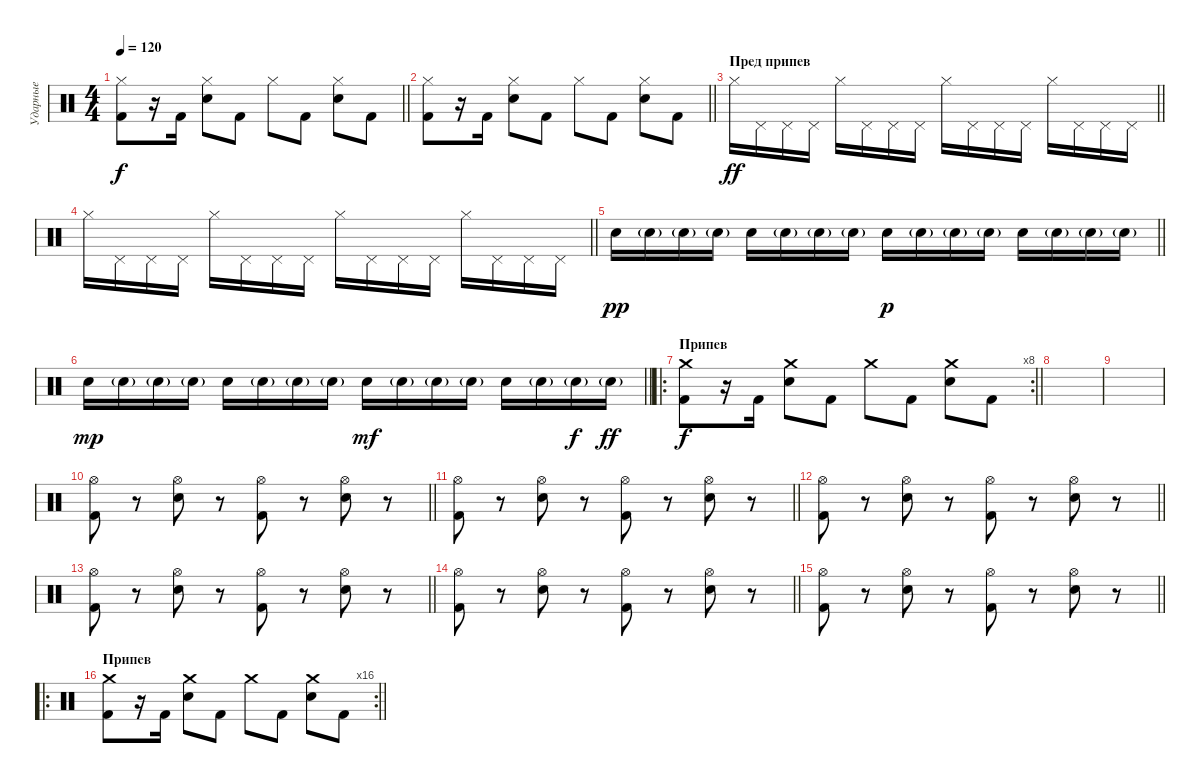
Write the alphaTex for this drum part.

\track ("Ударные" "Ударные") {instrument percussion}
\staff {score}
\articulation defaults
\ts (4 4)
\tempo 120
\clef neutral
\barLineRight lightlight
\ks c
("Kick (hit) 2" "Hi-Hat (closed)").8{dy f} r.16 "Kick (hit) 2".16 ("Electric Snare (hit)" "Hi-Hat (closed)").8 "Kick (hit) 2".8 "Hi-Hat (closed)".8 "Kick (hit) 2".8 ("Electric Snare (hit)" "Hi-Hat (closed)").8 "Kick (hit) 2".8 |
\barLineRight lightlight
("Kick (hit) 2" "Hi-Hat (closed)").8 r.16 "Kick (hit) 2".16 ("Electric Snare (hit)" "Hi-Hat (closed)").8 "Kick (hit) 2".8 "Hi-Hat (closed)".8 "Kick (hit) 2".8 ("Electric Snare (hit)" "Hi-Hat (closed)").8 "Kick (hit) 2".8 |
\section ("" "Пред припев")
\barLineRight lightlight "Hi-Hat (closed)".16{dy ff} "Pedal Hi-Hat (hit)".16 "Pedal Hi-Hat (hit)".16 "Pedal Hi-Hat (hit)".16 "Hi-Hat (closed)".16 "Pedal Hi-Hat (hit)".16 "Pedal Hi-Hat (hit)".16 "Pedal Hi-Hat (hit)".16 "Hi-Hat (closed)".16 "Pedal Hi-Hat (hit)".16 "Pedal Hi-Hat (hit)".16 "Pedal Hi-Hat (hit)".16 "Hi-Hat (closed)".16 "Pedal Hi-Hat (hit)".16 "Pedal Hi-Hat (hit)".16 "Pedal Hi-Hat (hit)".16
|
\barLineRight lightlight "Hi-Hat (closed)".16 "Pedal Hi-Hat (hit)".16 "Pedal Hi-Hat (hit)".16 "Pedal Hi-Hat (hit)".16 "Hi-Hat (closed)".16 "Pedal Hi-Hat (hit)".16 "Pedal Hi-Hat (hit)".16 "Pedal Hi-Hat (hit)".16 "Hi-Hat (closed)".16 "Pedal Hi-Hat (hit)".16 "Pedal Hi-Hat (hit)".16 "Pedal Hi-Hat (hit)".16 "Hi-Hat (closed)".16 "Pedal Hi-Hat (hit)".16 "Pedal Hi-Hat (hit)".16 "Pedal Hi-Hat (hit)".16
|
\barLineRight lightlight "Electric Snare (hit)".16{dy pp} "Electric Snare (hit)"{g}.16 "Electric Snare (hit)"{g}.16 "Electric Snare (hit)"{g}.16 "Electric Snare (hit)".16 "Electric Snare (hit)"{g}.16 "Electric Snare (hit)"{g}.16 "Electric Snare (hit)"{g}.16 "Electric Snare (hit)".16{dy p} "Electric Snare (hit)"{g}.16 "Electric Snare (hit)"{g}.16 "Electric Snare (hit)"{g}.16 "Electric Snare (hit)".16 "Electric Snare (hit)"{g}.16 "Electric Snare (hit)"{g}.16 "Electric Snare (hit)"{g}.16
|
\barLineRight lightlight "Electric Snare (hit)".16{dy mp} "Electric Snare (hit)"{g}.16 "Electric Snare (hit)"{g}.16 "Electric Snare (hit)"{g}.16 "Electric Snare (hit)".16 "Electric Snare (hit)"{g}.16 "Electric Snare (hit)"{g}.16 "Electric Snare (hit)"{g}.16 "Electric Snare (hit)".16{dy mf} "Electric Snare (hit)"{g}.16 "Electric Snare (hit)"{g}.16 "Electric Snare (hit)"{g}.16 "Electric Snare (hit)".16 "Electric Snare (hit)"{g}.16 "Electric Snare (hit)"{g}.16{dy f} "Electric Snare (hit)"{g}.16{dy ff}
|
\ro
\rc 8
\section ("" "Припев")
\barLineRight lightlight
("Kick (hit) 2" "Crash medium (hit)").8{dy f} r.16 "Kick (hit) 2".16 ("Electric Snare (hit)" "Crash medium (hit)").8 "Kick (hit) 2".8 "Crash medium (hit)".8 "Kick (hit) 2".8 ("Electric Snare (hit)" "Crash medium (hit)").8 "Kick (hit) 2".8 |
|
|
\barLineRight lightlight
("Kick (hit) 2" "Hi-Hat (open)").8 r.8 ("Electric Snare (hit)" "Hi-Hat (open)").8 r.8 ("Kick (hit) 2" "Hi-Hat (open)").8 r.8 ("Electric Snare (hit)" "Hi-Hat (open)").8 r.8 |
\barLineRight lightlight
("Kick (hit) 2" "Hi-Hat (open)").8 r.8 ("Electric Snare (hit)" "Hi-Hat (open)").8 r.8 ("Kick (hit) 2" "Hi-Hat (open)").8 r.8 ("Electric Snare (hit)" "Hi-Hat (open)").8 r.8 |
\barLineRight lightlight
("Kick (hit) 2" "Hi-Hat (open)").8 r.8 ("Electric Snare (hit)" "Hi-Hat (open)").8 r.8 ("Kick (hit) 2" "Hi-Hat (open)").8 r.8 ("Electric Snare (hit)" "Hi-Hat (open)").8 r.8 |
\barLineRight lightlight
("Kick (hit) 2" "Hi-Hat (open)").8 r.8 ("Electric Snare (hit)" "Hi-Hat (open)").8 r.8 ("Kick (hit) 2" "Hi-Hat (open)").8 r.8 ("Electric Snare (hit)" "Hi-Hat (open)").8 r.8 |
\barLineRight lightlight
("Kick (hit) 2" "Hi-Hat (open)").8 r.8 ("Electric Snare (hit)" "Hi-Hat (open)").8 r.8 ("Kick (hit) 2" "Hi-Hat (open)").8 r.8 ("Electric Snare (hit)" "Hi-Hat (open)").8 r.8 |
\barLineRight lightlight
("Kick (hit) 2" "Hi-Hat (open)").8 r.8 ("Electric Snare (hit)" "Hi-Hat (open)").8 r.8 ("Kick (hit) 2" "Hi-Hat (open)").8 r.8 ("Electric Snare (hit)" "Hi-Hat (open)").8 r.8 |
\ro
\rc 16
\section ("" "Припев")
\barLineRight lightlight
("Kick (hit) 2" "Crash medium (hit)").8 r.16 "Kick (hit) 2".16 ("Electric Snare (hit)" "Crash medium (hit)").8 "Kick (hit) 2".8 "Crash medium (hit)".8 "Kick (hit) 2".8 ("Electric Snare (hit)" "Crash medium (hit)").8 "Kick (hit) 2".8
